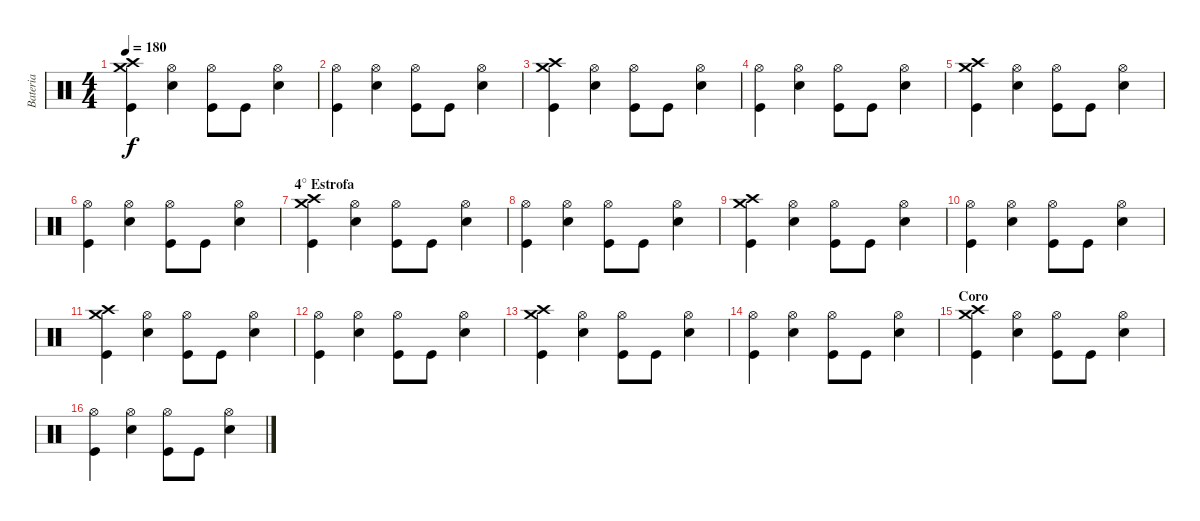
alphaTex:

\track ("Bateria" "Bateria") {instrument percussion}
\staff {score}
\articulation defaults
\ts (4 4)
\tempo 180
\clef neutral
\ks c
("Crash medium (hit)" "Crash high (hit)" "Kick (hit)").4{dy f} ("Hi-Hat (open)" "Snare (hit) 2").4 ("Hi-Hat (open)" "Kick (hit)").8 "Kick (hit)".8 ("Hi-Hat (open)" "Snare (hit) 2").4 |
("Hi-Hat (open)" "Kick (hit)").4 ("Hi-Hat (open)" "Snare (hit) 2").4 ("Hi-Hat (open)" "Kick (hit)").8 "Kick (hit)".8 ("Hi-Hat (open)" "Snare (hit) 2").4 |
("Crash medium (hit)" "Crash high (hit)" "Kick (hit)").4 ("Hi-Hat (open)" "Snare (hit) 2").4 ("Hi-Hat (open)" "Kick (hit)").8 "Kick (hit)".8 ("Hi-Hat (open)" "Snare (hit) 2").4 |
("Hi-Hat (open)" "Kick (hit)").4 ("Hi-Hat (open)" "Snare (hit) 2").4 ("Hi-Hat (open)" "Kick (hit)").8 "Kick (hit)".8 ("Hi-Hat (open)" "Snare (hit) 2").4 |
("Crash medium (hit)" "Crash high (hit)" "Kick (hit)").4 ("Hi-Hat (open)" "Snare (hit) 2").4 ("Hi-Hat (open)" "Kick (hit)").8 "Kick (hit)".8 ("Hi-Hat (open)" "Snare (hit) 2").4 |
("Hi-Hat (open)" "Kick (hit)").4 ("Hi-Hat (open)" "Snare (hit) 2").4 ("Hi-Hat (open)" "Kick (hit)").8 "Kick (hit)".8 ("Hi-Hat (open)" "Snare (hit) 2").4 |
\section ("" "4° Estrofa")
("Crash medium (hit)" "Crash high (hit)" "Kick (hit)").4 ("Hi-Hat (open)" "Snare (hit) 2").4 ("Hi-Hat (open)" "Kick (hit)").8 "Kick (hit)".8 ("Hi-Hat (open)" "Snare (hit) 2").4 |
("Hi-Hat (open)" "Kick (hit)").4 ("Hi-Hat (open)" "Snare (hit) 2").4 ("Hi-Hat (open)" "Kick (hit)").8 "Kick (hit)".8 ("Hi-Hat (open)" "Snare (hit) 2").4 |
("Crash medium (hit)" "Crash high (hit)" "Kick (hit)").4 ("Hi-Hat (open)" "Snare (hit) 2").4 ("Hi-Hat (open)" "Kick (hit)").8 "Kick (hit)".8 ("Hi-Hat (open)" "Snare (hit) 2").4 |
("Hi-Hat (open)" "Kick (hit)").4 ("Hi-Hat (open)" "Snare (hit) 2").4 ("Hi-Hat (open)" "Kick (hit)").8 "Kick (hit)".8 ("Hi-Hat (open)" "Snare (hit) 2").4 |
("Crash medium (hit)" "Crash high (hit)" "Kick (hit)").4 ("Hi-Hat (open)" "Snare (hit) 2").4 ("Hi-Hat (open)" "Kick (hit)").8 "Kick (hit)".8 ("Hi-Hat (open)" "Snare (hit) 2").4 |
("Hi-Hat (open)" "Kick (hit)").4 ("Hi-Hat (open)" "Snare (hit) 2").4 ("Hi-Hat (open)" "Kick (hit)").8 "Kick (hit)".8 ("Hi-Hat (open)" "Snare (hit) 2").4 |
("Crash medium (hit)" "Crash high (hit)" "Kick (hit)").4 ("Hi-Hat (open)" "Snare (hit) 2").4 ("Hi-Hat (open)" "Kick (hit)").8 "Kick (hit)".8 ("Hi-Hat (open)" "Snare (hit) 2").4 |
("Hi-Hat (open)" "Kick (hit)").4 ("Hi-Hat (open)" "Snare (hit) 2").4 ("Hi-Hat (open)" "Kick (hit)").8 "Kick (hit)".8 ("Hi-Hat (open)" "Snare (hit) 2").4 |
\section ("" "Coro")
("Crash medium (hit)" "Crash high (hit)" "Kick (hit)").4 ("Hi-Hat (open)" "Snare (hit) 2").4 ("Hi-Hat (open)" "Kick (hit)").8 "Kick (hit)".8 ("Hi-Hat (open)" "Snare (hit) 2").4 |
("Hi-Hat (open)" "Kick (hit)").4 ("Hi-Hat (open)" "Snare (hit) 2").4 ("Hi-Hat (open)" "Kick (hit)").8 "Kick (hit)".8 ("Hi-Hat (open)" "Snare (hit) 2").4
